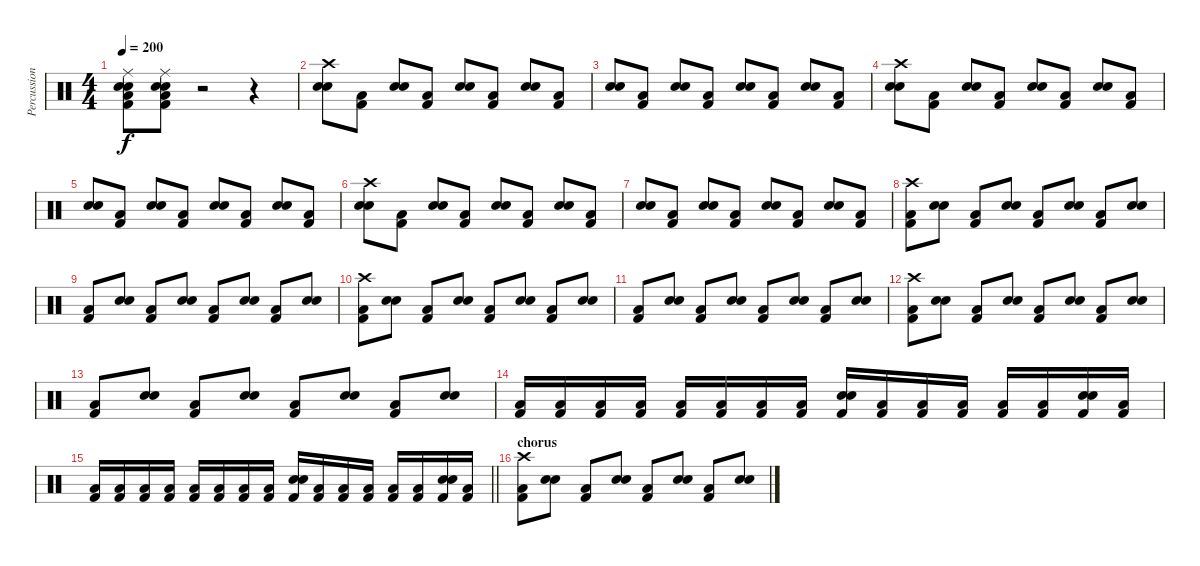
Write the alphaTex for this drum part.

\track ("Percussion, dave" "Percussion") {instrument percussion}
\staff {score}
\articulation defaults
\ts (4 4)
\tempo 200
\clef neutral
\ks c
("Ride (middle)" "Snare (hit) 2" "Electric Snare (hit)" "Low Tom (hit)" "Kick (hit) 2").8{dy f} ("Ride (middle)" "Snare (hit) 2" "Electric Snare (hit)" "Low Tom (hit)" "Kick (hit) 2").8 r.2 r.4 |
("Crash high (hit)" "Electric Snare (hit)" "Snare (hit) 2").8 ("Low Tom (hit)" "Kick (hit) 2").8 ("Electric Snare (hit)" "Snare (hit) 2").8 ("Low Tom (hit)" "Kick (hit) 2").8 ("Electric Snare (hit)" "Snare (hit) 2").8 ("Low Tom (hit)" "Kick (hit) 2").8 ("Electric Snare (hit)" "Snare (hit) 2").8 ("Low Tom (hit)" "Kick (hit) 2").8 |
("Electric Snare (hit)" "Snare (hit) 2").8 ("Low Tom (hit)" "Kick (hit) 2").8 ("Electric Snare (hit)" "Snare (hit) 2").8 ("Low Tom (hit)" "Kick (hit) 2").8 ("Electric Snare (hit)" "Snare (hit) 2").8 ("Low Tom (hit)" "Kick (hit) 2").8 ("Electric Snare (hit)" "Snare (hit) 2").8 ("Low Tom (hit)" "Kick (hit) 2").8 |
("Crash high (hit)" "Electric Snare (hit)" "Snare (hit) 2").8 ("Low Tom (hit)" "Kick (hit) 2").8 ("Electric Snare (hit)" "Snare (hit) 2").8 ("Low Tom (hit)" "Kick (hit) 2").8 ("Electric Snare (hit)" "Snare (hit) 2").8 ("Low Tom (hit)" "Kick (hit) 2").8 ("Electric Snare (hit)" "Snare (hit) 2").8 ("Low Tom (hit)" "Kick (hit) 2").8 |
("Electric Snare (hit)" "Snare (hit) 2").8 ("Low Tom (hit)" "Kick (hit) 2").8 ("Electric Snare (hit)" "Snare (hit) 2").8 ("Low Tom (hit)" "Kick (hit) 2").8 ("Electric Snare (hit)" "Snare (hit) 2").8 ("Low Tom (hit)" "Kick (hit) 2").8 ("Electric Snare (hit)" "Snare (hit) 2").8 ("Low Tom (hit)" "Kick (hit) 2").8 |
("Crash high (hit)" "Electric Snare (hit)" "Snare (hit) 2").8 ("Low Tom (hit)" "Kick (hit) 2").8 ("Electric Snare (hit)" "Snare (hit) 2").8 ("Low Tom (hit)" "Kick (hit) 2").8 ("Electric Snare (hit)" "Snare (hit) 2").8 ("Low Tom (hit)" "Kick (hit) 2").8 ("Electric Snare (hit)" "Snare (hit) 2").8 ("Low Tom (hit)" "Kick (hit) 2").8 |
("Electric Snare (hit)" "Snare (hit) 2").8 ("Low Tom (hit)" "Kick (hit) 2").8 ("Electric Snare (hit)" "Snare (hit) 2").8 ("Low Tom (hit)" "Kick (hit) 2").8 ("Electric Snare (hit)" "Snare (hit) 2").8 ("Low Tom (hit)" "Kick (hit) 2").8 ("Electric Snare (hit)" "Snare (hit) 2").8 ("Low Tom (hit)" "Kick (hit) 2").8 |
("Crash high (hit)" "Low Tom (hit)" "Kick (hit) 2").8 ("Snare (hit) 2" "Electric Snare (hit)").8 ("Low Tom (hit)" "Kick (hit) 2").8 ("Snare (hit) 2" "Electric Snare (hit)").8 ("Low Tom (hit)" "Kick (hit) 2").8 ("Snare (hit) 2" "Electric Snare (hit)").8 ("Low Tom (hit)" "Kick (hit) 2").8 ("Snare (hit) 2" "Electric Snare (hit)").8 |
("Low Tom (hit)" "Kick (hit) 2").8 ("Snare (hit) 2" "Electric Snare (hit)").8 ("Low Tom (hit)" "Kick (hit) 2").8 ("Snare (hit) 2" "Electric Snare (hit)").8 ("Low Tom (hit)" "Kick (hit) 2").8 ("Snare (hit) 2" "Electric Snare (hit)").8 ("Low Tom (hit)" "Kick (hit) 2").8 ("Snare (hit) 2" "Electric Snare (hit)").8 |
("Crash high (hit)" "Low Tom (hit)" "Kick (hit) 2").8 ("Snare (hit) 2" "Electric Snare (hit)").8 ("Low Tom (hit)" "Kick (hit) 2").8 ("Snare (hit) 2" "Electric Snare (hit)").8 ("Low Tom (hit)" "Kick (hit) 2").8 ("Snare (hit) 2" "Electric Snare (hit)").8 ("Low Tom (hit)" "Kick (hit) 2").8 ("Snare (hit) 2" "Electric Snare (hit)").8 |
("Low Tom (hit)" "Kick (hit) 2").8 ("Snare (hit) 2" "Electric Snare (hit)").8 ("Low Tom (hit)" "Kick (hit) 2").8 ("Snare (hit) 2" "Electric Snare (hit)").8 ("Low Tom (hit)" "Kick (hit) 2").8 ("Snare (hit) 2" "Electric Snare (hit)").8 ("Low Tom (hit)" "Kick (hit) 2").8 ("Snare (hit) 2" "Electric Snare (hit)").8 |
("Crash high (hit)" "Low Tom (hit)" "Kick (hit) 2").8 ("Snare (hit) 2" "Electric Snare (hit)").8 ("Low Tom (hit)" "Kick (hit) 2").8 ("Snare (hit) 2" "Electric Snare (hit)").8 ("Low Tom (hit)" "Kick (hit) 2").8 ("Snare (hit) 2" "Electric Snare (hit)").8 ("Low Tom (hit)" "Kick (hit) 2").8 ("Snare (hit) 2" "Electric Snare (hit)").8 |
("Low Tom (hit)" "Kick (hit) 2").8 ("Snare (hit) 2" "Electric Snare (hit)").8 ("Low Tom (hit)" "Kick (hit) 2").8 ("Snare (hit) 2" "Electric Snare (hit)").8 ("Low Tom (hit)" "Kick (hit) 2").8 ("Snare (hit) 2" "Electric Snare (hit)").8 ("Low Tom (hit)" "Kick (hit) 2").8 ("Snare (hit) 2" "Electric Snare (hit)").8 |
("Low Tom (hit)" "Kick (hit) 2").16 ("Low Tom (hit)" "Kick (hit) 2").16 ("Low Tom (hit)" "Kick (hit) 2").16 ("Low Tom (hit)" "Kick (hit) 2").16 ("Low Tom (hit)" "Kick (hit) 2").16 ("Low Tom (hit)" "Kick (hit) 2").16 ("Low Tom (hit)" "Kick (hit) 2").16 ("Low Tom (hit)" "Kick (hit) 2").16 ("Electric Snare (hit)" "Snare (hit) 2" "Kick (hit) 2").16 ("Low Tom (hit)" "Kick (hit) 2").16 ("Low Tom (hit)" "Kick (hit) 2").16 ("Low Tom (hit)" "Kick (hit) 2").16 ("Low Tom (hit)" "Kick (hit) 2").16 ("Low Tom (hit)" "Kick (hit) 2").16 ("Electric Snare (hit)" "Snare (hit) 2" "Kick (hit) 2").16 ("Low Tom (hit)" "Kick (hit) 2").16 |
\barLineRight lightlight
("Low Tom (hit)" "Kick (hit) 2").16 ("Low Tom (hit)" "Kick (hit) 2").16 ("Low Tom (hit)" "Kick (hit) 2").16 ("Low Tom (hit)" "Kick (hit) 2").16 ("Low Tom (hit)" "Kick (hit) 2").16 ("Low Tom (hit)" "Kick (hit) 2").16 ("Low Tom (hit)" "Kick (hit) 2").16 ("Low Tom (hit)" "Kick (hit) 2").16 ("Electric Snare (hit)" "Snare (hit) 2" "Kick (hit) 2").16 ("Low Tom (hit)" "Kick (hit) 2").16 ("Low Tom (hit)" "Kick (hit) 2").16 ("Low Tom (hit)" "Kick (hit) 2").16 ("Low Tom (hit)" "Kick (hit) 2").16 ("Low Tom (hit)" "Kick (hit) 2").16 ("Electric Snare (hit)" "Snare (hit) 2" "Kick (hit) 2").16 ("Low Tom (hit)" "Kick (hit) 2").16 |
\section ("" "chorus")
("Crash high (hit)" "Low Tom (hit)" "Kick (hit) 2").8 ("Snare (hit) 2" "Electric Snare (hit)").8 ("Low Tom (hit)" "Kick (hit) 2").8 ("Snare (hit) 2" "Electric Snare (hit)").8 ("Low Tom (hit)" "Kick (hit) 2").8 ("Snare (hit) 2" "Electric Snare (hit)").8 ("Low Tom (hit)" "Kick (hit) 2").8 ("Snare (hit) 2" "Electric Snare (hit)").8
